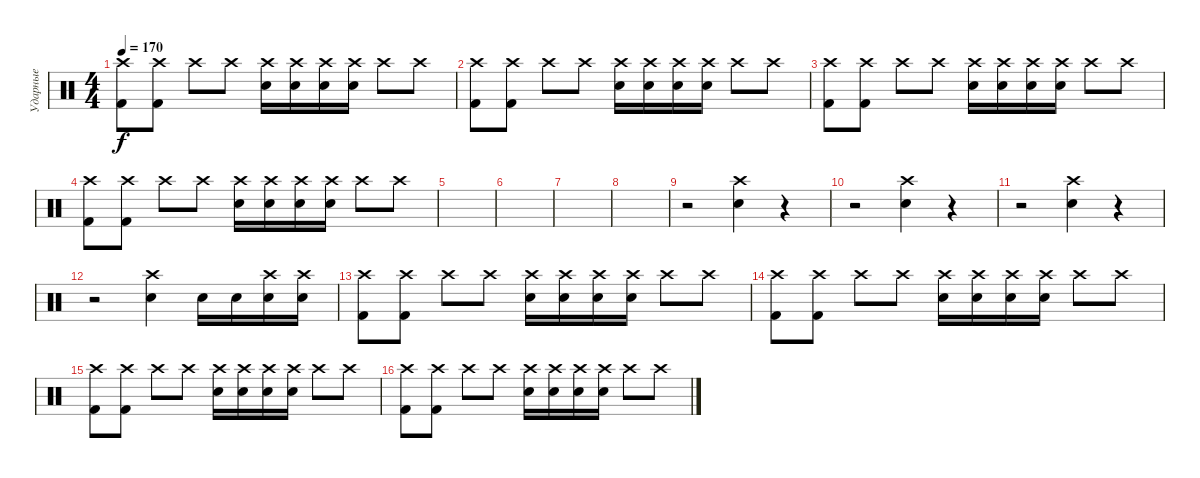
\track ("Ударные" "Ударные") {instrument percussion}
\staff {score}
\articulation defaults
\ts (4 4)
\tempo 170
\clef neutral
\ks c
("Crash high (hit)" "Kick (hit) 2").8{dy f} ("Crash high (hit)" "Kick (hit) 2").8 "Crash high (hit)".8 "Crash high (hit)".8 ("Crash high (hit)" "Electric Snare (hit)").16 ("Crash high (hit)" "Electric Snare (hit)").16 ("Crash high (hit)" "Electric Snare (hit)").16 ("Crash high (hit)" "Electric Snare (hit)").16 "Crash high (hit)".8 "Crash high (hit)".8 |
("Crash high (hit)" "Kick (hit) 2").8 ("Crash high (hit)" "Kick (hit) 2").8 "Crash high (hit)".8 "Crash high (hit)".8 ("Crash high (hit)" "Electric Snare (hit)").16 ("Crash high (hit)" "Electric Snare (hit)").16 ("Crash high (hit)" "Electric Snare (hit)").16 ("Crash high (hit)" "Electric Snare (hit)").16 "Crash high (hit)".8 "Crash high (hit)".8 |
("Crash high (hit)" "Kick (hit) 2").8 ("Crash high (hit)" "Kick (hit) 2").8 "Crash high (hit)".8 "Crash high (hit)".8 ("Crash high (hit)" "Electric Snare (hit)").16 ("Crash high (hit)" "Electric Snare (hit)").16 ("Crash high (hit)" "Electric Snare (hit)").16 ("Crash high (hit)" "Electric Snare (hit)").16 "Crash high (hit)".8 "Crash high (hit)".8 |
("Crash high (hit)" "Kick (hit) 2").8 ("Crash high (hit)" "Kick (hit) 2").8 "Crash high (hit)".8 "Crash high (hit)".8 ("Crash high (hit)" "Electric Snare (hit)").16 ("Crash high (hit)" "Electric Snare (hit)").16 ("Crash high (hit)" "Electric Snare (hit)").16 ("Crash high (hit)" "Electric Snare (hit)").16 "Crash high (hit)".8 "Crash high (hit)".8 |
|
|
|
|
r.2 ("Crash high (hit)" "Snare (hit) 2").4 r.4 |
r.2 ("Crash high (hit)" "Snare (hit) 2").4 r.4 |
r.2 ("Crash high (hit)" "Snare (hit) 2").4 r.4 |
r.2 ("Crash high (hit)" "Snare (hit) 2").4 "Electric Snare (hit)".16 "Electric Snare (hit)".16 ("Electric Snare (hit)" "Crash high (hit)").16 ("Electric Snare (hit)" "Crash high (hit)").16 |
("Crash high (hit)" "Kick (hit) 2").8 ("Crash high (hit)" "Kick (hit) 2").8 "Crash high (hit)".8 "Crash high (hit)".8 ("Crash high (hit)" "Electric Snare (hit)").16 ("Crash high (hit)" "Electric Snare (hit)").16 ("Crash high (hit)" "Electric Snare (hit)").16 ("Crash high (hit)" "Electric Snare (hit)").16 "Crash high (hit)".8 "Crash high (hit)".8 |
("Crash high (hit)" "Kick (hit) 2").8 ("Crash high (hit)" "Kick (hit) 2").8 "Crash high (hit)".8 "Crash high (hit)".8 ("Crash high (hit)" "Electric Snare (hit)").16 ("Crash high (hit)" "Electric Snare (hit)").16 ("Crash high (hit)" "Electric Snare (hit)").16 ("Crash high (hit)" "Electric Snare (hit)").16 "Crash high (hit)".8 "Crash high (hit)".8 |
("Crash high (hit)" "Kick (hit) 2").8 ("Crash high (hit)" "Kick (hit) 2").8 "Crash high (hit)".8 "Crash high (hit)".8 ("Crash high (hit)" "Electric Snare (hit)").16 ("Crash high (hit)" "Electric Snare (hit)").16 ("Crash high (hit)" "Electric Snare (hit)").16 ("Crash high (hit)" "Electric Snare (hit)").16 "Crash high (hit)".8 "Crash high (hit)".8 |
("Crash high (hit)" "Kick (hit) 2").8 ("Crash high (hit)" "Kick (hit) 2").8 "Crash high (hit)".8 "Crash high (hit)".8 ("Crash high (hit)" "Electric Snare (hit)").16 ("Crash high (hit)" "Electric Snare (hit)").16 ("Crash high (hit)" "Electric Snare (hit)").16 ("Crash high (hit)" "Electric Snare (hit)").16 "Crash high (hit)".8 "Crash high (hit)".8
